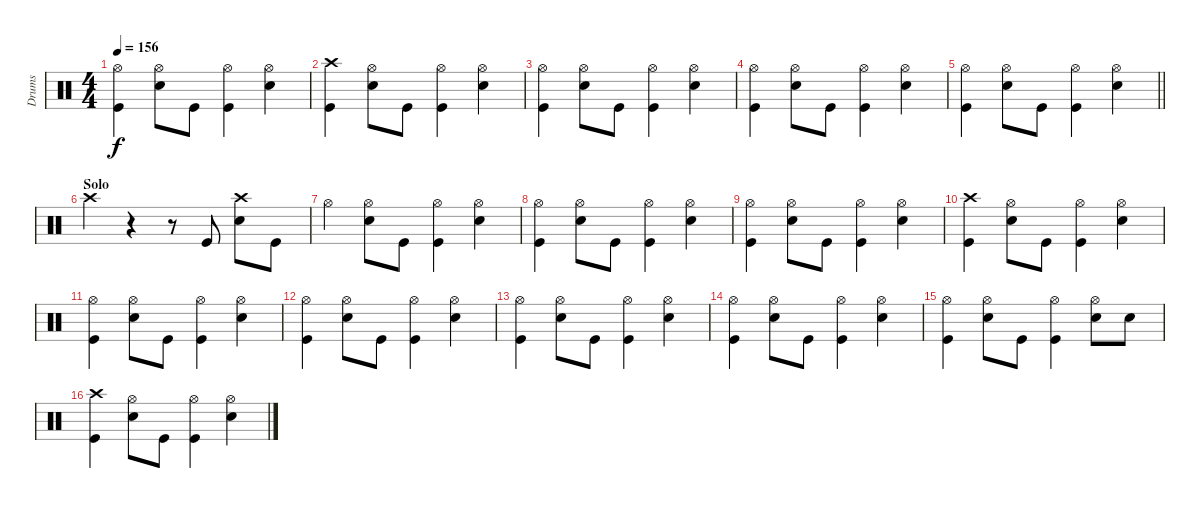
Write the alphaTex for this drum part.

\track ("Drums" "Drums") {instrument percussion}
\staff {score}
\articulation defaults
\ts (4 4)
\tempo 156
\clef neutral
\ks c
("Hi-Hat (open)" "Kick (hit)").4{dy f} ("Hi-Hat (open)" "Snare (hit) 2").8 "Kick (hit)".8 ("Hi-Hat (open)" "Kick (hit)").4 ("Hi-Hat (open)" "Snare (hit) 2").4 |
("Crash high (hit)" "Kick (hit)").4 ("Hi-Hat (open)" "Snare (hit) 2").8 "Kick (hit)".8 ("Hi-Hat (open)" "Kick (hit)").4 ("Hi-Hat (open)" "Snare (hit) 2").4 |
("Hi-Hat (open)" "Kick (hit)").4 ("Hi-Hat (open)" "Snare (hit) 2").8 "Kick (hit)".8 ("Hi-Hat (open)" "Kick (hit)").4 ("Hi-Hat (open)" "Snare (hit) 2").4 |
("Hi-Hat (open)" "Kick (hit)").4 ("Hi-Hat (open)" "Snare (hit) 2").8 "Kick (hit)".8 ("Hi-Hat (open)" "Kick (hit)").4 ("Hi-Hat (open)" "Snare (hit) 2").4 |
\barLineRight lightlight
("Hi-Hat (open)" "Kick (hit)").4 ("Hi-Hat (open)" "Snare (hit) 2").8 "Kick (hit)".8 ("Hi-Hat (open)" "Kick (hit)").4 ("Hi-Hat (open)" "Snare (hit) 2").4 |
\section ("" "Solo")
"Crash high (hit)".4 r.4 r.8 "Kick (hit)".8 ("Crash high (hit)" "Snare (hit) 2").8 "Kick (hit)".8 |
"Hi-Hat (open)".4 ("Hi-Hat (open)" "Snare (hit) 2").8 "Kick (hit)".8 ("Hi-Hat (open)" "Kick (hit)").4 ("Hi-Hat (open)" "Snare (hit) 2").4 |
("Hi-Hat (open)" "Kick (hit)").4 ("Hi-Hat (open)" "Snare (hit) 2").8 "Kick (hit)".8 ("Hi-Hat (open)" "Kick (hit)").4 ("Hi-Hat (open)" "Snare (hit) 2").4 |
("Hi-Hat (open)" "Kick (hit)").4 ("Hi-Hat (open)" "Snare (hit) 2").8 "Kick (hit)".8 ("Hi-Hat (open)" "Kick (hit)").4 ("Hi-Hat (open)" "Snare (hit) 2").4 |
("Crash high (hit)" "Kick (hit)").4 ("Hi-Hat (open)" "Snare (hit) 2").8 "Kick (hit)".8 ("Hi-Hat (open)" "Kick (hit)").4 ("Hi-Hat (open)" "Snare (hit) 2").4 |
("Hi-Hat (open)" "Kick (hit)").4 ("Hi-Hat (open)" "Snare (hit) 2").8 "Kick (hit)".8 ("Hi-Hat (open)" "Kick (hit)").4 ("Hi-Hat (open)" "Snare (hit) 2").4 |
("Hi-Hat (open)" "Kick (hit)").4 ("Hi-Hat (open)" "Snare (hit) 2").8 "Kick (hit)".8 ("Hi-Hat (open)" "Kick (hit)").4 ("Hi-Hat (open)" "Snare (hit) 2").4 |
("Hi-Hat (open)" "Kick (hit)").4 ("Hi-Hat (open)" "Snare (hit) 2").8 "Kick (hit)".8 ("Hi-Hat (open)" "Kick (hit)").4 ("Hi-Hat (open)" "Snare (hit) 2").4 |
("Hi-Hat (open)" "Kick (hit)").4 ("Hi-Hat (open)" "Snare (hit) 2").8 "Kick (hit)".8 ("Hi-Hat (open)" "Kick (hit)").4 ("Hi-Hat (open)" "Snare (hit) 2").4 |
("Hi-Hat (open)" "Kick (hit)").4 ("Hi-Hat (open)" "Snare (hit) 2").8 "Kick (hit)".8 ("Hi-Hat (open)" "Kick (hit)").4 ("Hi-Hat (open)" "Snare (hit) 2").8 "Snare (hit) 2".8 |
("Crash high (hit)" "Kick (hit)").4 ("Hi-Hat (open)" "Snare (hit) 2").8 "Kick (hit)".8 ("Hi-Hat (open)" "Kick (hit)").4 ("Hi-Hat (open)" "Snare (hit) 2").4
